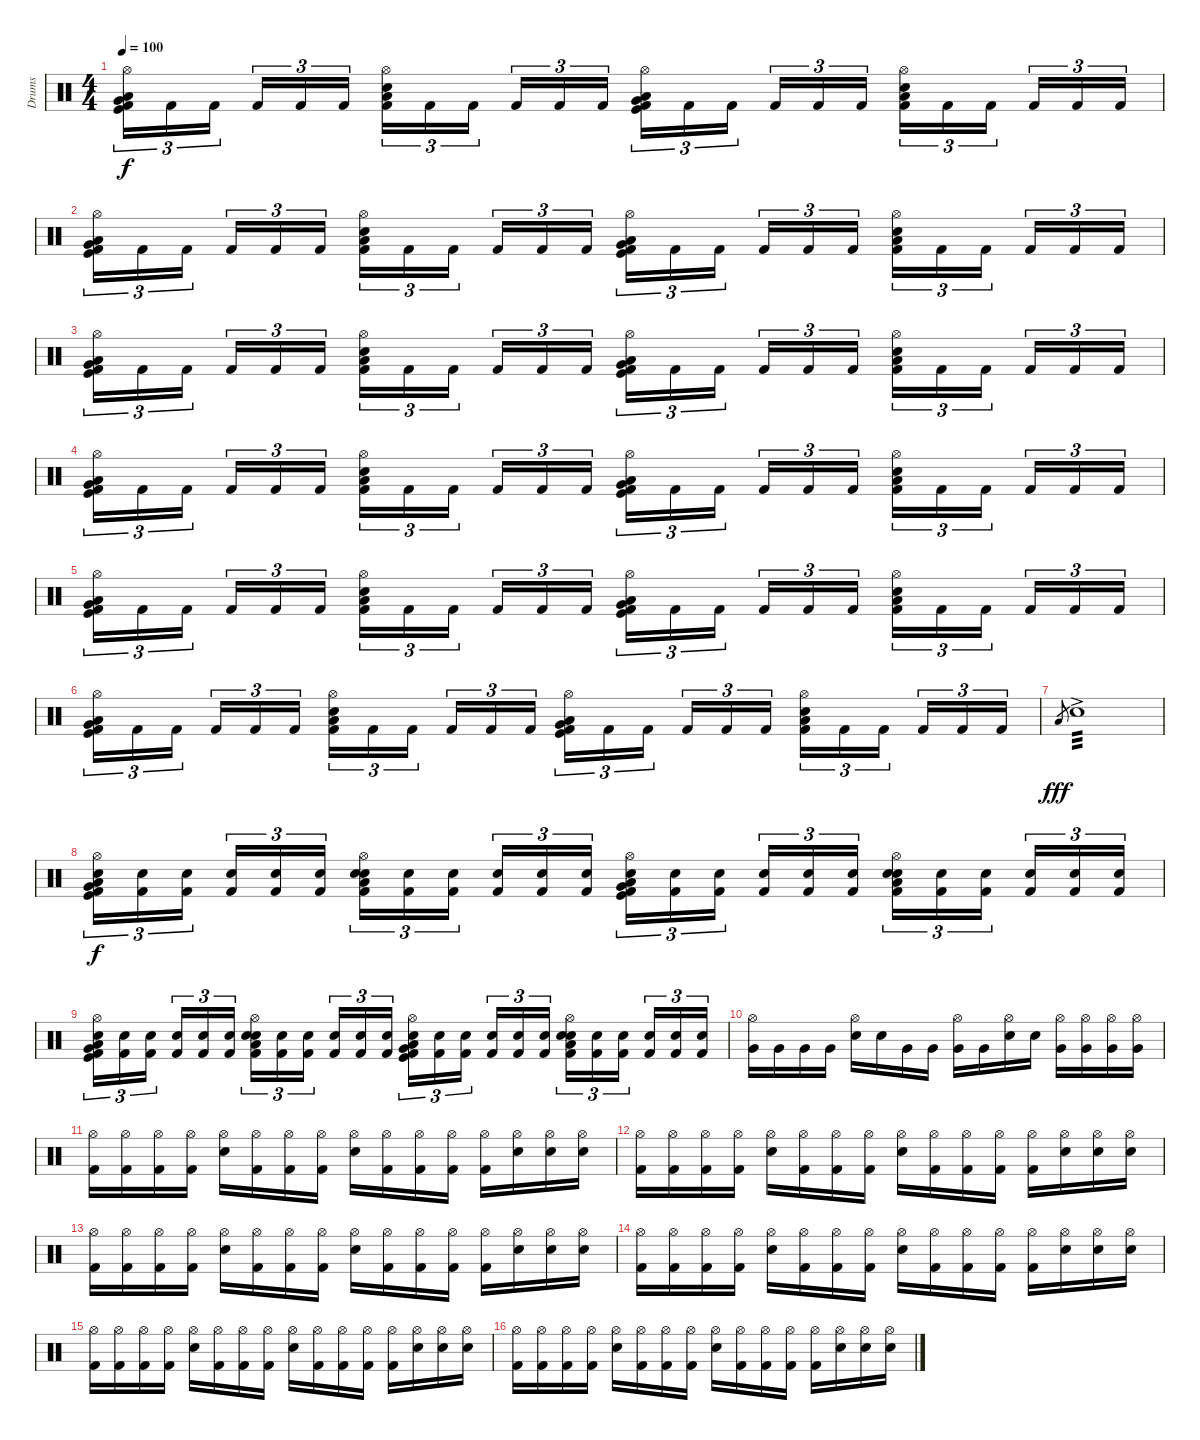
\track ("Drums" "Drums") {instrument percussion}
\staff {score}
\articulation defaults
\ts (4 4)
\tempo 100
\clef neutral
\ks c
("Hi-Hat (open)" "Very Low Tom (hit)" "Low Floor Tom (hit)" "Kick (hit) 2" "Kick (hit)").16{tu (3 2) dy f} "Kick (hit) 2".16{tu (3 2)} "Kick (hit) 2".16{tu (3 2)} "Kick (hit) 2".16{tu (3 2)} "Kick (hit) 2".16{tu (3 2)} "Kick (hit) 2".16{tu (3 2)} ("Hi-Hat (open)" "Snare (hit) 2" "Low Floor Tom (hit)" "Kick (hit) 2").16{tu (3 2)} "Kick (hit) 2".16{tu (3 2)} "Kick (hit) 2".16{tu (3 2)} "Kick (hit) 2".16{tu (3 2)} "Kick (hit) 2".16{tu (3 2)} "Kick (hit) 2".16{tu (3 2)} ("Hi-Hat (open)" "Very Low Tom (hit)" "Low Floor Tom (hit)" "Kick (hit) 2" "Kick (hit)").16{tu (3 2)} "Kick (hit) 2".16{tu (3 2)} "Kick (hit) 2".16{tu (3 2)} "Kick (hit) 2".16{tu (3 2)} "Kick (hit) 2".16{tu (3 2)} "Kick (hit) 2".16{tu (3 2)} ("Hi-Hat (open)" "Snare (hit) 2" "Low Floor Tom (hit)" "Kick (hit) 2").16{tu (3 2)} "Kick (hit) 2".16{tu (3 2)} "Kick (hit) 2".16{tu (3 2)} "Kick (hit) 2".16{tu (3 2)} "Kick (hit) 2".16{tu (3 2)} "Kick (hit) 2".16{tu (3 2)} |
("Hi-Hat (open)" "Very Low Tom (hit)" "Low Floor Tom (hit)" "Kick (hit) 2" "Kick (hit)").16{tu (3 2)} "Kick (hit) 2".16{tu (3 2)} "Kick (hit) 2".16{tu (3 2)} "Kick (hit) 2".16{tu (3 2)} "Kick (hit) 2".16{tu (3 2)} "Kick (hit) 2".16{tu (3 2)} ("Hi-Hat (open)" "Snare (hit) 2" "Low Floor Tom (hit)" "Kick (hit) 2").16{tu (3 2)} "Kick (hit) 2".16{tu (3 2)} "Kick (hit) 2".16{tu (3 2)} "Kick (hit) 2".16{tu (3 2)} "Kick (hit) 2".16{tu (3 2)} "Kick (hit) 2".16{tu (3 2)} ("Hi-Hat (open)" "Very Low Tom (hit)" "Low Floor Tom (hit)" "Kick (hit) 2" "Kick (hit)").16{tu (3 2)} "Kick (hit) 2".16{tu (3 2)} "Kick (hit) 2".16{tu (3 2)} "Kick (hit) 2".16{tu (3 2)} "Kick (hit) 2".16{tu (3 2)} "Kick (hit) 2".16{tu (3 2)} ("Hi-Hat (open)" "Snare (hit) 2" "Low Floor Tom (hit)" "Kick (hit) 2").16{tu (3 2)} "Kick (hit) 2".16{tu (3 2)} "Kick (hit) 2".16{tu (3 2)} "Kick (hit) 2".16{tu (3 2)} "Kick (hit) 2".16{tu (3 2)} "Kick (hit) 2".16{tu (3 2)} |
("Hi-Hat (open)" "Very Low Tom (hit)" "Low Floor Tom (hit)" "Kick (hit) 2" "Kick (hit)").16{tu (3 2)} "Kick (hit) 2".16{tu (3 2)} "Kick (hit) 2".16{tu (3 2)} "Kick (hit) 2".16{tu (3 2)} "Kick (hit) 2".16{tu (3 2)} "Kick (hit) 2".16{tu (3 2)} ("Hi-Hat (open)" "Snare (hit) 2" "Low Floor Tom (hit)" "Kick (hit) 2").16{tu (3 2)} "Kick (hit) 2".16{tu (3 2)} "Kick (hit) 2".16{tu (3 2)} "Kick (hit) 2".16{tu (3 2)} "Kick (hit) 2".16{tu (3 2)} "Kick (hit) 2".16{tu (3 2)} ("Hi-Hat (open)" "Very Low Tom (hit)" "Low Floor Tom (hit)" "Kick (hit) 2" "Kick (hit)").16{tu (3 2)} "Kick (hit) 2".16{tu (3 2)} "Kick (hit) 2".16{tu (3 2)} "Kick (hit) 2".16{tu (3 2)} "Kick (hit) 2".16{tu (3 2)} "Kick (hit) 2".16{tu (3 2)} ("Hi-Hat (open)" "Snare (hit) 2" "Low Floor Tom (hit)" "Kick (hit) 2").16{tu (3 2)} "Kick (hit) 2".16{tu (3 2)} "Kick (hit) 2".16{tu (3 2)} "Kick (hit) 2".16{tu (3 2)} "Kick (hit) 2".16{tu (3 2)} "Kick (hit) 2".16{tu (3 2)} |
("Hi-Hat (open)" "Very Low Tom (hit)" "Low Floor Tom (hit)" "Kick (hit) 2" "Kick (hit)").16{tu (3 2)} "Kick (hit) 2".16{tu (3 2)} "Kick (hit) 2".16{tu (3 2)} "Kick (hit) 2".16{tu (3 2)} "Kick (hit) 2".16{tu (3 2)} "Kick (hit) 2".16{tu (3 2)} ("Hi-Hat (open)" "Snare (hit) 2" "Low Floor Tom (hit)" "Kick (hit) 2").16{tu (3 2)} "Kick (hit) 2".16{tu (3 2)} "Kick (hit) 2".16{tu (3 2)} "Kick (hit) 2".16{tu (3 2)} "Kick (hit) 2".16{tu (3 2)} "Kick (hit) 2".16{tu (3 2)} ("Hi-Hat (open)" "Very Low Tom (hit)" "Low Floor Tom (hit)" "Kick (hit) 2" "Kick (hit)").16{tu (3 2)} "Kick (hit) 2".16{tu (3 2)} "Kick (hit) 2".16{tu (3 2)} "Kick (hit) 2".16{tu (3 2)} "Kick (hit) 2".16{tu (3 2)} "Kick (hit) 2".16{tu (3 2)} ("Hi-Hat (open)" "Snare (hit) 2" "Low Floor Tom (hit)" "Kick (hit) 2").16{tu (3 2)} "Kick (hit) 2".16{tu (3 2)} "Kick (hit) 2".16{tu (3 2)} "Kick (hit) 2".16{tu (3 2)} "Kick (hit) 2".16{tu (3 2)} "Kick (hit) 2".16{tu (3 2)} |
("Hi-Hat (open)" "Very Low Tom (hit)" "Low Floor Tom (hit)" "Kick (hit) 2" "Kick (hit)").16{tu (3 2)} "Kick (hit) 2".16{tu (3 2)} "Kick (hit) 2".16{tu (3 2)} "Kick (hit) 2".16{tu (3 2)} "Kick (hit) 2".16{tu (3 2)} "Kick (hit) 2".16{tu (3 2)} ("Hi-Hat (open)" "Snare (hit) 2" "Low Floor Tom (hit)" "Kick (hit) 2").16{tu (3 2)} "Kick (hit) 2".16{tu (3 2)} "Kick (hit) 2".16{tu (3 2)} "Kick (hit) 2".16{tu (3 2)} "Kick (hit) 2".16{tu (3 2)} "Kick (hit) 2".16{tu (3 2)} ("Hi-Hat (open)" "Very Low Tom (hit)" "Low Floor Tom (hit)" "Kick (hit) 2" "Kick (hit)").16{tu (3 2)} "Kick (hit) 2".16{tu (3 2)} "Kick (hit) 2".16{tu (3 2)} "Kick (hit) 2".16{tu (3 2)} "Kick (hit) 2".16{tu (3 2)} "Kick (hit) 2".16{tu (3 2)} ("Hi-Hat (open)" "Snare (hit) 2" "Low Floor Tom (hit)" "Kick (hit) 2").16{tu (3 2)} "Kick (hit) 2".16{tu (3 2)} "Kick (hit) 2".16{tu (3 2)} "Kick (hit) 2".16{tu (3 2)} "Kick (hit) 2".16{tu (3 2)} "Kick (hit) 2".16{tu (3 2)} |
("Hi-Hat (open)" "Very Low Tom (hit)" "Low Floor Tom (hit)" "Kick (hit) 2" "Kick (hit)").16{tu (3 2)} "Kick (hit) 2".16{tu (3 2)} "Kick (hit) 2".16{tu (3 2)} "Kick (hit) 2".16{tu (3 2)} "Kick (hit) 2".16{tu (3 2)} "Kick (hit) 2".16{tu (3 2)} ("Hi-Hat (open)" "Snare (hit) 2" "Low Floor Tom (hit)" "Kick (hit) 2").16{tu (3 2)} "Kick (hit) 2".16{tu (3 2)} "Kick (hit) 2".16{tu (3 2)} "Kick (hit) 2".16{tu (3 2)} "Kick (hit) 2".16{tu (3 2)} "Kick (hit) 2".16{tu (3 2)} ("Hi-Hat (open)" "Very Low Tom (hit)" "Low Floor Tom (hit)" "Kick (hit) 2" "Kick (hit)").16{tu (3 2)} "Kick (hit) 2".16{tu (3 2)} "Kick (hit) 2".16{tu (3 2)} "Kick (hit) 2".16{tu (3 2)} "Kick (hit) 2".16{tu (3 2)} "Kick (hit) 2".16{tu (3 2)} ("Hi-Hat (open)" "Snare (hit) 2" "Low Floor Tom (hit)" "Kick (hit) 2").16{tu (3 2)} "Kick (hit) 2".16{tu (3 2)} "Kick (hit) 2".16{tu (3 2)} "Kick (hit) 2".16{tu (3 2)} "Kick (hit) 2".16{tu (3 2)} "Kick (hit) 2".16{tu (3 2)} |
"Low Floor Tom (hit)".8{gr dy fff} "Electric Snare (hit)"{ac}.1{tp 3} |
("Electric Snare (hit)" "Hi-Hat (open)" "Very Low Tom (hit)" "Low Floor Tom (hit)" "Kick (hit) 2" "Kick (hit)").16{tu (3 2) dy f} ("Electric Snare (hit)" "Kick (hit) 2").16{tu (3 2)} ("Electric Snare (hit)" "Kick (hit) 2").16{tu (3 2)} ("Electric Snare (hit)" "Kick (hit) 2").16{tu (3 2)} ("Electric Snare (hit)" "Kick (hit) 2").16{tu (3 2)} ("Electric Snare (hit)" "Kick (hit) 2").16{tu (3 2)} ("Electric Snare (hit)" "Hi-Hat (open)" "Snare (hit) 2" "Low Floor Tom (hit)" "Kick (hit) 2").16{tu (3 2)} ("Electric Snare (hit)" "Kick (hit) 2").16{tu (3 2)} ("Electric Snare (hit)" "Kick (hit) 2").16{tu (3 2)} ("Electric Snare (hit)" "Kick (hit) 2").16{tu (3 2)} ("Electric Snare (hit)" "Kick (hit) 2").16{tu (3 2)} ("Electric Snare (hit)" "Kick (hit) 2").16{tu (3 2)} ("Electric Snare (hit)" "Hi-Hat (open)" "Very Low Tom (hit)" "Low Floor Tom (hit)" "Kick (hit) 2" "Kick (hit)").16{tu (3 2)} ("Electric Snare (hit)" "Kick (hit) 2").16{tu (3 2)} ("Electric Snare (hit)" "Kick (hit) 2").16{tu (3 2)} ("Electric Snare (hit)" "Kick (hit) 2").16{tu (3 2)} ("Electric Snare (hit)" "Kick (hit) 2").16{tu (3 2)} ("Electric Snare (hit)" "Kick (hit) 2").16{tu (3 2)} ("Electric Snare (hit)" "Hi-Hat (open)" "Snare (hit) 2" "Low Floor Tom (hit)" "Kick (hit) 2").16{tu (3 2)} ("Electric Snare (hit)" "Kick (hit) 2").16{tu (3 2)} ("Electric Snare (hit)" "Kick (hit) 2").16{tu (3 2)} ("Electric Snare (hit)" "Kick (hit) 2").16{tu (3 2)} ("Electric Snare (hit)" "Kick (hit) 2").16{tu (3 2)} ("Electric Snare (hit)" "Kick (hit) 2").16{tu (3 2)} |
("Electric Snare (hit)" "Hi-Hat (open)" "Very Low Tom (hit)" "Low Floor Tom (hit)" "Kick (hit) 2" "Kick (hit)").16{tu (3 2)} ("Electric Snare (hit)" "Kick (hit) 2").16{tu (3 2)} ("Electric Snare (hit)" "Kick (hit) 2").16{tu (3 2)} ("Electric Snare (hit)" "Kick (hit) 2").16{tu (3 2)} ("Electric Snare (hit)" "Kick (hit) 2").16{tu (3 2)} ("Electric Snare (hit)" "Kick (hit) 2").16{tu (3 2)} ("Electric Snare (hit)" "Hi-Hat (open)" "Snare (hit) 2" "Low Floor Tom (hit)" "Kick (hit) 2").16{tu (3 2)} ("Electric Snare (hit)" "Kick (hit) 2").16{tu (3 2)} ("Electric Snare (hit)" "Kick (hit) 2").16{tu (3 2)} ("Electric Snare (hit)" "Kick (hit) 2").16{tu (3 2)} ("Electric Snare (hit)" "Kick (hit) 2").16{tu (3 2)} ("Electric Snare (hit)" "Kick (hit) 2").16{tu (3 2)} ("Electric Snare (hit)" "Hi-Hat (open)" "Very Low Tom (hit)" "Low Floor Tom (hit)" "Kick (hit) 2" "Kick (hit)").16{tu (3 2)} ("Electric Snare (hit)" "Kick (hit) 2").16{tu (3 2)} ("Electric Snare (hit)" "Kick (hit) 2").16{tu (3 2)} ("Electric Snare (hit)" "Kick (hit) 2").16{tu (3 2)} ("Electric Snare (hit)" "Kick (hit) 2").16{tu (3 2)} ("Electric Snare (hit)" "Kick (hit) 2").16{tu (3 2)} ("Electric Snare (hit)" "Hi-Hat (open)" "Snare (hit) 2" "Low Floor Tom (hit)" "Kick (hit) 2").16{tu (3 2)} ("Electric Snare (hit)" "Kick (hit) 2").16{tu (3 2)} ("Electric Snare (hit)" "Kick (hit) 2").16{tu (3 2)} ("Electric Snare (hit)" "Kick (hit) 2").16{tu (3 2)} ("Electric Snare (hit)" "Kick (hit) 2").16{tu (3 2)} ("Electric Snare (hit)" "Kick (hit) 2").16{tu (3 2)} |
("Hi-Hat (open)" "Very Low Tom (hit)").16 "Very Low Tom (hit)".16 "Very Low Tom (hit)".16 "Very Low Tom (hit)".16 ("Hi-Hat (open)" "Electric Snare (hit)").16 "Electric Snare (hit)".16 "Very Low Tom (hit)".16 "Very Low Tom (hit)".16 ("Hi-Hat (open)" "Very Low Tom (hit)").16 "Very Low Tom (hit)".16 ("Hi-Hat (open)" "Electric Snare (hit)").16 "Electric Snare (hit)".16 ("Hi-Hat (open)" "Very Low Tom (hit)").16 ("Hi-Hat (open)" "Very Low Tom (hit)").16 ("Hi-Hat (open)" "Very Low Tom (hit)").16 ("Hi-Hat (open)" "Very Low Tom (hit)").16 |
("Hi-Hat (open)" "Kick (hit) 2").16 ("Hi-Hat (open)" "Kick (hit) 2").16 ("Hi-Hat (open)" "Kick (hit) 2").16 ("Hi-Hat (open)" "Kick (hit) 2").16 ("Hi-Hat (open)" "Electric Snare (hit)").16 ("Hi-Hat (open)" "Kick (hit) 2").16 ("Hi-Hat (open)" "Kick (hit) 2").16 ("Hi-Hat (open)" "Kick (hit) 2").16 ("Hi-Hat (open)" "Electric Snare (hit)").16 ("Hi-Hat (open)" "Kick (hit) 2").16 ("Hi-Hat (open)" "Kick (hit) 2").16 ("Hi-Hat (open)" "Kick (hit) 2").16 ("Hi-Hat (open)" "Kick (hit) 2").16 ("Hi-Hat (open)" "Electric Snare (hit)").16 ("Hi-Hat (open)" "Electric Snare (hit)").16 ("Hi-Hat (open)" "Electric Snare (hit)").16 |
("Hi-Hat (open)" "Kick (hit) 2").16 ("Hi-Hat (open)" "Kick (hit) 2").16 ("Hi-Hat (open)" "Kick (hit) 2").16 ("Hi-Hat (open)" "Kick (hit) 2").16 ("Hi-Hat (open)" "Electric Snare (hit)").16 ("Hi-Hat (open)" "Kick (hit) 2").16 ("Hi-Hat (open)" "Kick (hit) 2").16 ("Hi-Hat (open)" "Kick (hit) 2").16 ("Hi-Hat (open)" "Electric Snare (hit)").16 ("Hi-Hat (open)" "Kick (hit) 2").16 ("Hi-Hat (open)" "Kick (hit) 2").16 ("Hi-Hat (open)" "Kick (hit) 2").16 ("Hi-Hat (open)" "Kick (hit) 2").16 ("Hi-Hat (open)" "Electric Snare (hit)").16 ("Hi-Hat (open)" "Electric Snare (hit)").16 ("Hi-Hat (open)" "Electric Snare (hit)").16 |
("Hi-Hat (open)" "Kick (hit) 2").16 ("Hi-Hat (open)" "Kick (hit) 2").16 ("Hi-Hat (open)" "Kick (hit) 2").16 ("Hi-Hat (open)" "Kick (hit) 2").16 ("Hi-Hat (open)" "Electric Snare (hit)").16 ("Hi-Hat (open)" "Kick (hit) 2").16 ("Hi-Hat (open)" "Kick (hit) 2").16 ("Hi-Hat (open)" "Kick (hit) 2").16 ("Hi-Hat (open)" "Electric Snare (hit)").16 ("Hi-Hat (open)" "Kick (hit) 2").16 ("Hi-Hat (open)" "Kick (hit) 2").16 ("Hi-Hat (open)" "Kick (hit) 2").16 ("Hi-Hat (open)" "Kick (hit) 2").16 ("Hi-Hat (open)" "Electric Snare (hit)").16 ("Hi-Hat (open)" "Electric Snare (hit)").16 ("Hi-Hat (open)" "Electric Snare (hit)").16 |
("Hi-Hat (open)" "Kick (hit) 2").16 ("Hi-Hat (open)" "Kick (hit) 2").16 ("Hi-Hat (open)" "Kick (hit) 2").16 ("Hi-Hat (open)" "Kick (hit) 2").16 ("Hi-Hat (open)" "Electric Snare (hit)").16 ("Hi-Hat (open)" "Kick (hit) 2").16 ("Hi-Hat (open)" "Kick (hit) 2").16 ("Hi-Hat (open)" "Kick (hit) 2").16 ("Hi-Hat (open)" "Electric Snare (hit)").16 ("Hi-Hat (open)" "Kick (hit) 2").16 ("Hi-Hat (open)" "Kick (hit) 2").16 ("Hi-Hat (open)" "Kick (hit) 2").16 ("Hi-Hat (open)" "Kick (hit) 2").16 ("Hi-Hat (open)" "Electric Snare (hit)").16 ("Hi-Hat (open)" "Electric Snare (hit)").16 ("Hi-Hat (open)" "Electric Snare (hit)").16 |
("Hi-Hat (open)" "Kick (hit) 2").16 ("Hi-Hat (open)" "Kick (hit) 2").16 ("Hi-Hat (open)" "Kick (hit) 2").16 ("Hi-Hat (open)" "Kick (hit) 2").16 ("Hi-Hat (open)" "Electric Snare (hit)").16 ("Hi-Hat (open)" "Kick (hit) 2").16 ("Hi-Hat (open)" "Kick (hit) 2").16 ("Hi-Hat (open)" "Kick (hit) 2").16 ("Hi-Hat (open)" "Electric Snare (hit)").16 ("Hi-Hat (open)" "Kick (hit) 2").16 ("Hi-Hat (open)" "Kick (hit) 2").16 ("Hi-Hat (open)" "Kick (hit) 2").16 ("Hi-Hat (open)" "Kick (hit) 2").16 ("Hi-Hat (open)" "Electric Snare (hit)").16 ("Hi-Hat (open)" "Electric Snare (hit)").16 ("Hi-Hat (open)" "Electric Snare (hit)").16 |
("Hi-Hat (open)" "Kick (hit) 2").16 ("Hi-Hat (open)" "Kick (hit) 2").16 ("Hi-Hat (open)" "Kick (hit) 2").16 ("Hi-Hat (open)" "Kick (hit) 2").16 ("Hi-Hat (open)" "Electric Snare (hit)").16 ("Hi-Hat (open)" "Kick (hit) 2").16 ("Hi-Hat (open)" "Kick (hit) 2").16 ("Hi-Hat (open)" "Kick (hit) 2").16 ("Hi-Hat (open)" "Electric Snare (hit)").16 ("Hi-Hat (open)" "Kick (hit) 2").16 ("Hi-Hat (open)" "Kick (hit) 2").16 ("Hi-Hat (open)" "Kick (hit) 2").16 ("Hi-Hat (open)" "Kick (hit) 2").16 ("Hi-Hat (open)" "Electric Snare (hit)").16 ("Hi-Hat (open)" "Electric Snare (hit)").16 ("Hi-Hat (open)" "Electric Snare (hit)").16
